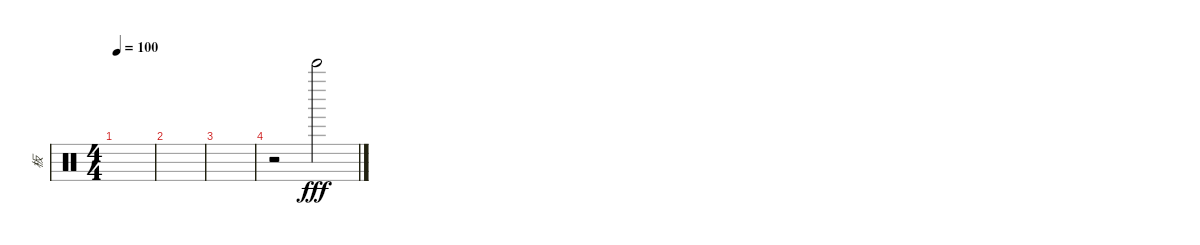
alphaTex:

\track ("板" "板") {instrument percussion}
\staff {score}
\articulation defaults
\ts (4 4)
\tempo 100
\clef neutral
\ks c
|
|
|
r.2 "Bell Tree (hit)".2{dy fff}
